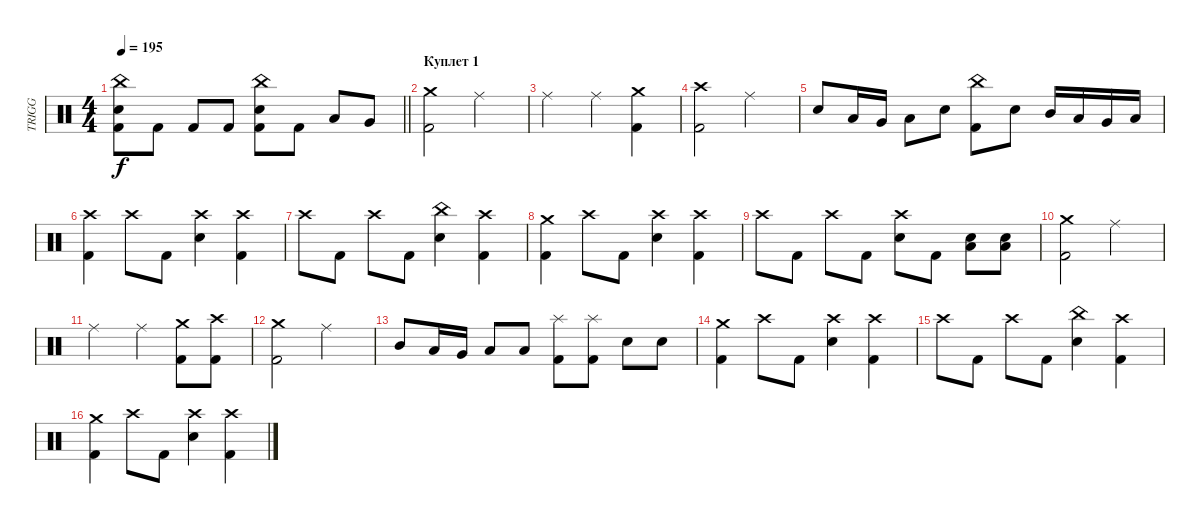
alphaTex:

\track ("TRIGG" "TRIGG") {instrument percussion}
\staff {score}
\articulation defaults
\ts (4 4)
\tempo 195
\clef neutral
\barLineRight lightlight
\ks c
("China (hit)" "Electric Snare (hit)" "Kick (hit) 2").8{dy f} "Kick (hit) 2".8 "Kick (hit) 2".8 "Kick (hit) 2".8 ("China (hit)" "Electric Snare (hit)" "Kick (hit) 2").8 "Kick (hit) 2".8 "Low Tom (hit)".8 "Very Low Tom (hit)".8 |
\section ("" "Куплет 1")
("Crash medium (hit)" "Kick (hit) 2").2 "Ride (middle)".2 |
"Ride (middle)".2 "Ride (middle)".4 ("Crash medium (hit)" "Kick (hit) 2").4 |
("Crash high (hit)" "Kick (hit) 2").2 "Ride (middle)".2 |
"Electric Snare (hit)".8 "Low Tom (hit)".16 "Very Low Tom (hit)".16 "Low Floor Tom (hit)".8 "Electric Snare (hit)".8 ("China (hit)" "Kick (hit) 2").8 "Electric Snare (hit)".8 "Mid Tom (hit)".16 "Low Tom (hit)".16 "Very Low Tom (hit)".16 "Low Floor Tom (hit)".16 |
("Crash high (hit)" "Kick (hit) 2").4 "Crash high (hit)".8 "Kick (hit) 2".8 ("Crash high (hit)" "Electric Snare (hit)").4 ("Crash high (hit)" "Kick (hit) 2").4 |
"Crash high (hit)".8 "Kick (hit) 2".8 "Crash high (hit)".8 "Kick (hit) 2".8 ("China (hit)" "Electric Snare (hit)").4 ("Crash high (hit)" "Kick (hit) 2").4 |
("Crash medium (hit)" "Kick (hit) 2").4 "Crash high (hit)".8 "Kick (hit) 2".8 ("Crash high (hit)" "Electric Snare (hit)").4 ("Crash high (hit)" "Kick (hit) 2").4 |
"Crash high (hit)".8 "Kick (hit) 2".8 "Crash high (hit)".8 "Kick (hit) 2".8 ("Crash high (hit)" "Electric Snare (hit)").8 "Kick (hit) 2".8 ("Low Floor Tom (hit)" "Electric Snare (hit)").8 ("Low Floor Tom (hit)" "Electric Snare (hit)").8 |
("Crash medium (hit)" "Kick (hit) 2").2 "Ride (middle)".2 |
"Ride (middle)".2 "Ride (middle)".4 ("Crash medium (hit)" "Kick (hit) 2").8 ("Crash high (hit)" "Kick (hit) 2").8 |
("Crash medium (hit)" "Kick (hit) 2").2 "Ride (middle)".2 |
"Mid Tom (hit)".8 "Low Tom (hit)".16 "Very Low Tom (hit)".16 "Low Floor Tom (hit)".8 "Low Tom (hit)".8 ("Splash (hit)" "Kick (hit) 2").8 ("Splash (hit)" "Kick (hit) 2").8 "Electric Snare (hit)".8 "Electric Snare (hit)".8 |
("Crash medium (hit)" "Kick (hit) 2").4 "Crash high (hit)".8 "Kick (hit) 2".8 ("Crash high (hit)" "Electric Snare (hit)").4 ("Crash high (hit)" "Kick (hit) 2").4 |
"Crash high (hit)".8 "Kick (hit) 2".8 "Crash high (hit)".8 "Kick (hit) 2".8 ("China (hit)" "Electric Snare (hit)").4 ("Crash high (hit)" "Kick (hit) 2").4 |
("Crash medium (hit)" "Kick (hit) 2").4 "Crash high (hit)".8 "Kick (hit) 2".8 ("Crash high (hit)" "Electric Snare (hit)").4 ("Crash high (hit)" "Kick (hit) 2").4
